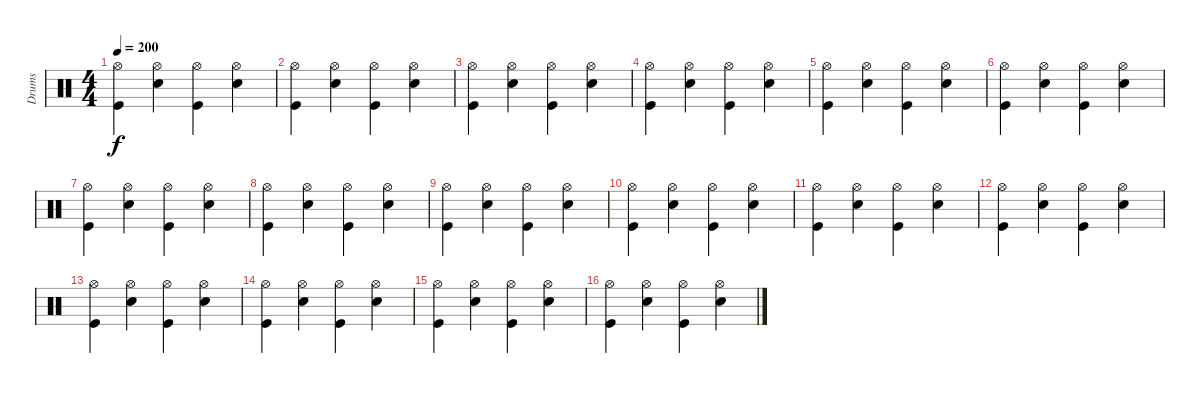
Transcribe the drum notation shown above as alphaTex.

\track ("Drums" "Drums") {instrument percussion}
\staff {score}
\articulation defaults
\ts (4 4)
\tempo 200
\clef neutral
\ks c
("Hi-Hat (open)" "Kick (hit)").4{dy f} ("Hi-Hat (open)" "Snare (hit) 2").4 ("Hi-Hat (open)" "Kick (hit)").4 ("Hi-Hat (open)" "Snare (hit) 2").4 |
("Hi-Hat (open)" "Kick (hit)").4 ("Hi-Hat (open)" "Snare (hit) 2").4 ("Hi-Hat (open)" "Kick (hit)").4 ("Hi-Hat (open)" "Snare (hit) 2").4 |
("Hi-Hat (open)" "Kick (hit)").4 ("Hi-Hat (open)" "Snare (hit) 2").4 ("Hi-Hat (open)" "Kick (hit)").4 ("Hi-Hat (open)" "Snare (hit) 2").4 |
("Hi-Hat (open)" "Kick (hit)").4 ("Hi-Hat (open)" "Snare (hit) 2").4 ("Hi-Hat (open)" "Kick (hit)").4 ("Hi-Hat (open)" "Snare (hit) 2").4 |
("Hi-Hat (open)" "Kick (hit)").4 ("Hi-Hat (open)" "Snare (hit) 2").4 ("Hi-Hat (open)" "Kick (hit)").4 ("Hi-Hat (open)" "Snare (hit) 2").4 |
("Hi-Hat (open)" "Kick (hit)").4 ("Hi-Hat (open)" "Snare (hit) 2").4 ("Hi-Hat (open)" "Kick (hit)").4 ("Hi-Hat (open)" "Snare (hit) 2").4 |
("Hi-Hat (open)" "Kick (hit)").4 ("Hi-Hat (open)" "Snare (hit) 2").4 ("Hi-Hat (open)" "Kick (hit)").4 ("Hi-Hat (open)" "Snare (hit) 2").4 |
("Hi-Hat (open)" "Kick (hit)").4 ("Hi-Hat (open)" "Snare (hit) 2").4 ("Hi-Hat (open)" "Kick (hit)").4 ("Hi-Hat (open)" "Snare (hit) 2").4 |
("Hi-Hat (open)" "Kick (hit)").4 ("Hi-Hat (open)" "Snare (hit) 2").4 ("Hi-Hat (open)" "Kick (hit)").4 ("Hi-Hat (open)" "Snare (hit) 2").4 |
("Hi-Hat (open)" "Kick (hit)").4 ("Hi-Hat (open)" "Snare (hit) 2").4 ("Hi-Hat (open)" "Kick (hit)").4 ("Hi-Hat (open)" "Snare (hit) 2").4 |
("Hi-Hat (open)" "Kick (hit)").4 ("Hi-Hat (open)" "Snare (hit) 2").4 ("Hi-Hat (open)" "Kick (hit)").4 ("Hi-Hat (open)" "Snare (hit) 2").4 |
("Hi-Hat (open)" "Kick (hit)").4 ("Hi-Hat (open)" "Snare (hit) 2").4 ("Hi-Hat (open)" "Kick (hit)").4 ("Hi-Hat (open)" "Snare (hit) 2").4 |
("Hi-Hat (open)" "Kick (hit)").4 ("Hi-Hat (open)" "Snare (hit) 2").4 ("Hi-Hat (open)" "Kick (hit)").4 ("Hi-Hat (open)" "Snare (hit) 2").4 |
("Hi-Hat (open)" "Kick (hit)").4 ("Hi-Hat (open)" "Snare (hit) 2").4 ("Hi-Hat (open)" "Kick (hit)").4 ("Hi-Hat (open)" "Snare (hit) 2").4 |
("Hi-Hat (open)" "Kick (hit)").4 ("Hi-Hat (open)" "Snare (hit) 2").4 ("Hi-Hat (open)" "Kick (hit)").4 ("Hi-Hat (open)" "Snare (hit) 2").4 |
("Hi-Hat (open)" "Kick (hit)").4 ("Hi-Hat (open)" "Snare (hit) 2").4 ("Hi-Hat (open)" "Kick (hit)").4 ("Hi-Hat (open)" "Snare (hit) 2").4
